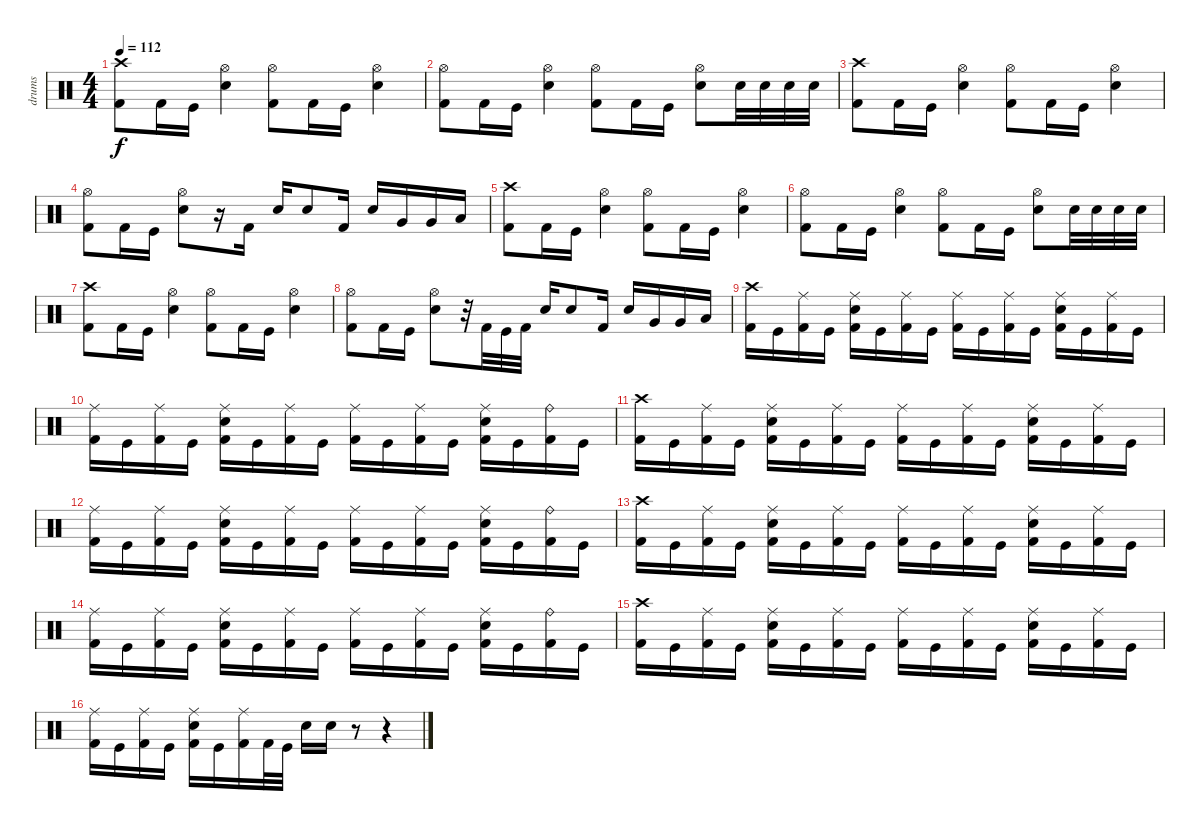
\track ("drums" "drums") {instrument percussion}
\staff {score}
\articulation defaults
\ts (4 4)
\tempo 112
\clef neutral
\ks c
("Crash high (hit)" "Kick (hit) 2").8{dy f} "Kick (hit) 2".16 "Kick (hit)".16 ("Hi-Hat (open)" "Electric Snare (hit)").4 ("Hi-Hat (open)" "Kick (hit) 2").8 "Kick (hit) 2".16 "Kick (hit)".16 ("Hi-Hat (open)" "Electric Snare (hit)").4 |
("Hi-Hat (open)" "Kick (hit) 2").8 "Kick (hit) 2".16 "Kick (hit)".16 ("Hi-Hat (open)" "Electric Snare (hit)").4 ("Hi-Hat (open)" "Kick (hit) 2").8 "Kick (hit) 2".16 "Kick (hit)".16 ("Hi-Hat (open)" "Electric Snare (hit)").8 "Electric Snare (hit)".32 "Electric Snare (hit)".32 "Electric Snare (hit)".32 "Electric Snare (hit)".32 |
("Crash high (hit)" "Kick (hit) 2").8 "Kick (hit) 2".16 "Kick (hit)".16 ("Hi-Hat (open)" "Electric Snare (hit)").4 ("Hi-Hat (open)" "Kick (hit) 2").8 "Kick (hit) 2".16 "Kick (hit)".16 ("Hi-Hat (open)" "Electric Snare (hit)").4 |
("Hi-Hat (open)" "Kick (hit) 2").8 "Kick (hit) 2".16 "Kick (hit)".16 ("Hi-Hat (open)" "Electric Snare (hit)").8 r.16 "Kick (hit) 2".16 "Electric Snare (hit)".16 "Electric Snare (hit)".8 "Kick (hit) 2".16 "Electric Snare (hit)".16 "Very Low Tom (hit)".16 "Very Low Tom (hit)".16 "Low Floor Tom (hit)".16 |
("Crash high (hit)" "Kick (hit) 2").8 "Kick (hit) 2".16 "Kick (hit)".16 ("Hi-Hat (open)" "Electric Snare (hit)").4 ("Hi-Hat (open)" "Kick (hit) 2").8 "Kick (hit) 2".16 "Kick (hit)".16 ("Hi-Hat (open)" "Electric Snare (hit)").4 |
("Hi-Hat (open)" "Kick (hit) 2").8 "Kick (hit) 2".16 "Kick (hit)".16 ("Hi-Hat (open)" "Electric Snare (hit)").4 ("Hi-Hat (open)" "Kick (hit) 2").8 "Kick (hit) 2".16 "Kick (hit)".16 ("Hi-Hat (open)" "Electric Snare (hit)").8 "Electric Snare (hit)".32 "Electric Snare (hit)".32 "Electric Snare (hit)".32 "Electric Snare (hit)".32 |
("Crash high (hit)" "Kick (hit) 2").8 "Kick (hit) 2".16 "Kick (hit)".16 ("Hi-Hat (open)" "Electric Snare (hit)").4 ("Hi-Hat (open)" "Kick (hit) 2").8 "Kick (hit) 2".16 "Kick (hit)".16 ("Hi-Hat (open)" "Electric Snare (hit)").4 |
("Hi-Hat (open)" "Kick (hit) 2").8 "Kick (hit) 2".16 "Kick (hit)".16 ("Hi-Hat (open)" "Electric Snare (hit)").8 r.32 "Kick (hit) 2".32 "Kick (hit)".32 "Kick (hit) 2".32 "Electric Snare (hit)".16 "Electric Snare (hit)".8 "Kick (hit) 2".16 "Electric Snare (hit)".16 "Very Low Tom (hit)".16 "Very Low Tom (hit)".16 "Low Floor Tom (hit)".16 |
("Crash high (hit)" "Kick (hit) 2").16 "Kick (hit)".16 ("Ride (middle)" "Kick (hit) 2").16 "Kick (hit)".16 ("Ride (middle)" "Electric Snare (hit)" "Kick (hit) 2").16 "Kick (hit)".16 ("Ride (middle)" "Kick (hit) 2").16 "Kick (hit)".16 ("Ride (middle)" "Kick (hit) 2").16 "Kick (hit)".16 ("Ride (middle)" "Kick (hit) 2").16 "Kick (hit)".16 ("Ride (middle)" "Electric Snare (hit)" "Kick (hit) 2").16 "Kick (hit)".16 ("Ride (middle)" "Kick (hit) 2").16 "Kick (hit)".16 |
("Ride (middle)" "Kick (hit) 2").16 "Kick (hit)".16 ("Ride (middle)" "Kick (hit) 2").16 "Kick (hit)".16 ("Ride (middle)" "Electric Snare (hit)" "Kick (hit) 2").16 "Kick (hit)".16 ("Ride (middle)" "Kick (hit) 2").16 "Kick (hit)".16 ("Ride (middle)" "Kick (hit) 2").16 "Kick (hit)".16 ("Ride (middle)" "Kick (hit) 2").16 "Kick (hit)".16 ("Ride (middle)" "Electric Snare (hit)" "Kick (hit) 2").16 "Kick (hit)".16 ("Ride (bell)" "Kick (hit) 2").16 "Kick (hit)".16 |
("Crash high (hit)" "Kick (hit) 2").16 "Kick (hit)".16 ("Ride (middle)" "Kick (hit) 2").16 "Kick (hit)".16 ("Ride (middle)" "Electric Snare (hit)" "Kick (hit) 2").16 "Kick (hit)".16 ("Ride (middle)" "Kick (hit) 2").16 "Kick (hit)".16 ("Ride (middle)" "Kick (hit) 2").16 "Kick (hit)".16 ("Ride (middle)" "Kick (hit) 2").16 "Kick (hit)".16 ("Ride (middle)" "Electric Snare (hit)" "Kick (hit) 2").16 "Kick (hit)".16 ("Ride (middle)" "Kick (hit) 2").16 "Kick (hit)".16 |
("Ride (middle)" "Kick (hit) 2").16 "Kick (hit)".16 ("Ride (middle)" "Kick (hit) 2").16 "Kick (hit)".16 ("Ride (middle)" "Electric Snare (hit)" "Kick (hit) 2").16 "Kick (hit)".16 ("Ride (middle)" "Kick (hit) 2").16 "Kick (hit)".16 ("Ride (middle)" "Kick (hit) 2").16 "Kick (hit)".16 ("Ride (middle)" "Kick (hit) 2").16 "Kick (hit)".16 ("Ride (middle)" "Electric Snare (hit)" "Kick (hit) 2").16 "Kick (hit)".16 ("Ride (bell)" "Kick (hit) 2").16 "Kick (hit)".16 |
("Crash high (hit)" "Kick (hit) 2").16 "Kick (hit)".16 ("Ride (middle)" "Kick (hit) 2").16 "Kick (hit)".16 ("Ride (middle)" "Electric Snare (hit)" "Kick (hit) 2").16 "Kick (hit)".16 ("Ride (middle)" "Kick (hit) 2").16 "Kick (hit)".16 ("Ride (middle)" "Kick (hit) 2").16 "Kick (hit)".16 ("Ride (middle)" "Kick (hit) 2").16 "Kick (hit)".16 ("Ride (middle)" "Electric Snare (hit)" "Kick (hit) 2").16 "Kick (hit)".16 ("Ride (middle)" "Kick (hit) 2").16 "Kick (hit)".16 |
("Ride (middle)" "Kick (hit) 2").16 "Kick (hit)".16 ("Ride (middle)" "Kick (hit) 2").16 "Kick (hit)".16 ("Ride (middle)" "Electric Snare (hit)" "Kick (hit) 2").16 "Kick (hit)".16 ("Ride (middle)" "Kick (hit) 2").16 "Kick (hit)".16 ("Ride (middle)" "Kick (hit) 2").16 "Kick (hit)".16 ("Ride (middle)" "Kick (hit) 2").16 "Kick (hit)".16 ("Ride (middle)" "Electric Snare (hit)" "Kick (hit) 2").16 "Kick (hit)".16 ("Ride (bell)" "Kick (hit) 2").16 "Kick (hit)".16 |
("Crash high (hit)" "Kick (hit) 2").16 "Kick (hit)".16 ("Ride (middle)" "Kick (hit) 2").16 "Kick (hit)".16 ("Ride (middle)" "Electric Snare (hit)" "Kick (hit) 2").16 "Kick (hit)".16 ("Ride (middle)" "Kick (hit) 2").16 "Kick (hit)".16 ("Ride (middle)" "Kick (hit) 2").16 "Kick (hit)".16 ("Ride (middle)" "Kick (hit) 2").16 "Kick (hit)".16 ("Ride (middle)" "Electric Snare (hit)" "Kick (hit) 2").16 "Kick (hit)".16 ("Ride (middle)" "Kick (hit) 2").16 "Kick (hit)".16 |
("Ride (middle)" "Kick (hit) 2").16 "Kick (hit)".16 ("Ride (middle)" "Kick (hit) 2").16 "Kick (hit)".16 ("Ride (middle)" "Electric Snare (hit)" "Kick (hit) 2").16 "Kick (hit)".16 ("Ride (middle)" "Kick (hit) 2").16 "Kick (hit) 2".32 "Kick (hit)".32 "Electric Snare (hit)".16 "Electric Snare (hit)".16 r.8 r.4
